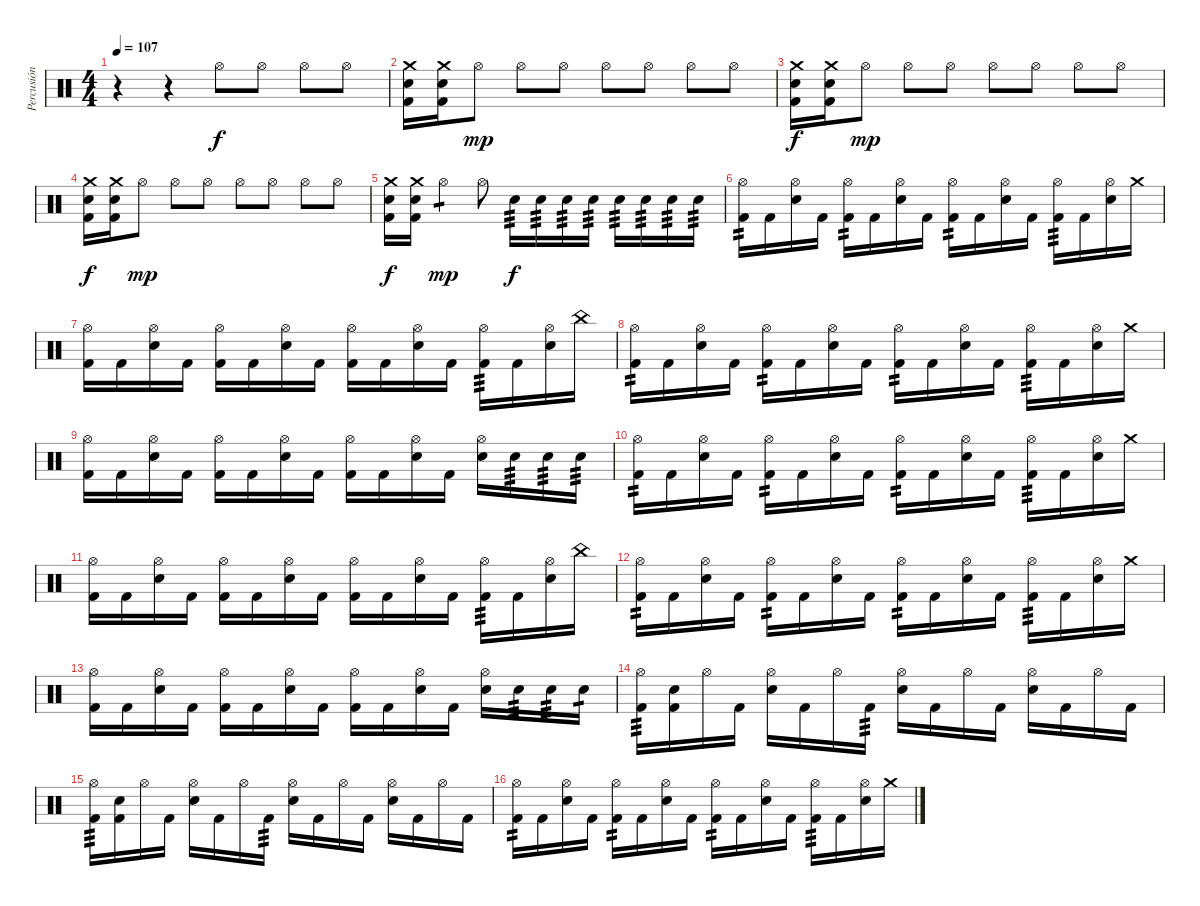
\track ("Percusión" "Percusión") {instrument percussion}
\staff {score}
\articulation defaults
\ts (4 4)
\tempo 107
\clef neutral
\ks c
r.4{dy f} r.4 "Hi-Hat (open)".8 "Hi-Hat (open)".8 "Hi-Hat (open)".8 "Hi-Hat (open)".8 |
("Crash medium (hit)" "Electric Snare (hit)" "Kick (hit) 2").16 ("Crash medium (hit)" "Electric Snare (hit)" "Kick (hit) 2").16 "Hi-Hat (open)".8{dy mp} "Hi-Hat (open)".8 "Hi-Hat (open)".8 "Hi-Hat (open)".8 "Hi-Hat (open)".8 "Hi-Hat (open)".8 "Hi-Hat (open)".8 |
("Crash medium (hit)" "Electric Snare (hit)" "Kick (hit) 2").16{dy f} ("Crash medium (hit)" "Electric Snare (hit)" "Kick (hit) 2").16 "Hi-Hat (open)".8{dy mp} "Hi-Hat (open)".8 "Hi-Hat (open)".8 "Hi-Hat (open)".8 "Hi-Hat (open)".8 "Hi-Hat (open)".8 "Hi-Hat (open)".8 |
("Crash medium (hit)" "Electric Snare (hit)" "Kick (hit) 2").16{dy f} ("Crash medium (hit)" "Electric Snare (hit)" "Kick (hit) 2").16 "Hi-Hat (open)".8{dy mp} "Hi-Hat (open)".8 "Hi-Hat (open)".8 "Hi-Hat (open)".8 "Hi-Hat (open)".8 "Hi-Hat (open)".8 "Hi-Hat (open)".8 |
("Crash medium (hit)" "Electric Snare (hit)" "Kick (hit) 2").16{dy f} ("Crash medium (hit)" "Electric Snare (hit)" "Kick (hit) 2").16 "Hi-Hat (open)".4{tp 1 dy mp} "Hi-Hat (open)".8 "Electric Snare (hit)".16{tp 3 dy f} "Electric Snare (hit)".16{tp 3} "Electric Snare (hit)".16{tp 3} "Electric Snare (hit)".16{tp 3} "Electric Snare (hit)".16{tp 3} "Electric Snare (hit)".16{tp 3} "Electric Snare (hit)".16{tp 3} "Electric Snare (hit)".16{tp 3} |
("Hi-Hat (open)" "Kick (hit) 2").16{tp 2} "Kick (hit) 2".16 ("Hi-Hat (open)" "Electric Snare (hit)").16 "Kick (hit) 2".16 ("Hi-Hat (open)" "Kick (hit) 2").16{tp 2} "Kick (hit) 2".16 ("Hi-Hat (open)" "Electric Snare (hit)").16 "Kick (hit) 2".16 ("Hi-Hat (open)" "Kick (hit) 2").16{tp 2} "Kick (hit) 2".16 ("Hi-Hat (open)" "Electric Snare (hit)").16 "Kick (hit) 2".16 ("Hi-Hat (open)" "Kick (hit) 2").16{tp 3} "Kick (hit) 2".16 ("Hi-Hat (open)" "Electric Snare (hit)").16 "Crash medium (hit)".16 |
("Hi-Hat (open)" "Kick (hit) 2").16 "Kick (hit) 2".16 ("Hi-Hat (open)" "Electric Snare (hit)").16 "Kick (hit) 2".16 ("Hi-Hat (open)" "Kick (hit) 2").16 "Kick (hit) 2".16 ("Hi-Hat (open)" "Electric Snare (hit)").16 "Kick (hit) 2".16 ("Hi-Hat (open)" "Kick (hit) 2").16 "Kick (hit) 2".16 ("Hi-Hat (open)" "Electric Snare (hit)").16 "Kick (hit) 2".16 ("Hi-Hat (open)" "Kick (hit) 2").16{tp 3} "Kick (hit) 2".16 ("Hi-Hat (open)" "Electric Snare (hit)").16 "China (hit)".16 |
("Hi-Hat (open)" "Kick (hit) 2").16{tp 2} "Kick (hit) 2".16 ("Hi-Hat (open)" "Electric Snare (hit)").16 "Kick (hit) 2".16 ("Hi-Hat (open)" "Kick (hit) 2").16{tp 2} "Kick (hit) 2".16 ("Hi-Hat (open)" "Electric Snare (hit)").16 "Kick (hit) 2".16 ("Hi-Hat (open)" "Kick (hit) 2").16{tp 2} "Kick (hit) 2".16 ("Hi-Hat (open)" "Electric Snare (hit)").16 "Kick (hit) 2".16 ("Hi-Hat (open)" "Kick (hit) 2").16{tp 3} "Kick (hit) 2".16 ("Hi-Hat (open)" "Electric Snare (hit)").16 "Crash medium (hit)".16 |
("Hi-Hat (open)" "Kick (hit) 2").16 "Kick (hit) 2".16 ("Hi-Hat (open)" "Electric Snare (hit)").16 "Kick (hit) 2".16 ("Hi-Hat (open)" "Kick (hit) 2").16 "Kick (hit) 2".16 ("Hi-Hat (open)" "Electric Snare (hit)").16 "Kick (hit) 2".16 ("Hi-Hat (open)" "Kick (hit) 2").16 "Kick (hit) 2".16 ("Hi-Hat (open)" "Electric Snare (hit)").16 "Kick (hit) 2".16 ("Hi-Hat (open)" "Electric Snare (hit)").16 "Electric Snare (hit)".16{tp 3} "Electric Snare (hit)".16{tp 3} "Electric Snare (hit)".16{tp 3} |
("Hi-Hat (open)" "Kick (hit) 2").16{tp 2} "Kick (hit) 2".16 ("Hi-Hat (open)" "Electric Snare (hit)").16 "Kick (hit) 2".16 ("Hi-Hat (open)" "Kick (hit) 2").16{tp 2} "Kick (hit) 2".16 ("Hi-Hat (open)" "Electric Snare (hit)").16 "Kick (hit) 2".16 ("Hi-Hat (open)" "Kick (hit) 2").16{tp 2} "Kick (hit) 2".16 ("Hi-Hat (open)" "Electric Snare (hit)").16 "Kick (hit) 2".16 ("Hi-Hat (open)" "Kick (hit) 2").16{tp 3} "Kick (hit) 2".16 ("Hi-Hat (open)" "Electric Snare (hit)").16 "Crash medium (hit)".16 |
("Hi-Hat (open)" "Kick (hit) 2").16 "Kick (hit) 2".16 ("Hi-Hat (open)" "Electric Snare (hit)").16 "Kick (hit) 2".16 ("Hi-Hat (open)" "Kick (hit) 2").16 "Kick (hit) 2".16 ("Hi-Hat (open)" "Electric Snare (hit)").16 "Kick (hit) 2".16 ("Hi-Hat (open)" "Kick (hit) 2").16 "Kick (hit) 2".16 ("Hi-Hat (open)" "Electric Snare (hit)").16 "Kick (hit) 2".16 ("Hi-Hat (open)" "Kick (hit) 2").16{tp 3} "Kick (hit) 2".16 ("Hi-Hat (open)" "Electric Snare (hit)").16 "China (hit)".16 |
("Hi-Hat (open)" "Kick (hit) 2").16{tp 2} "Kick (hit) 2".16 ("Hi-Hat (open)" "Electric Snare (hit)").16 "Kick (hit) 2".16 ("Hi-Hat (open)" "Kick (hit) 2").16{tp 2} "Kick (hit) 2".16 ("Hi-Hat (open)" "Electric Snare (hit)").16 "Kick (hit) 2".16 ("Hi-Hat (open)" "Kick (hit) 2").16{tp 2} "Kick (hit) 2".16 ("Hi-Hat (open)" "Electric Snare (hit)").16 "Kick (hit) 2".16 ("Hi-Hat (open)" "Kick (hit) 2").16{tp 3} "Kick (hit) 2".16 ("Hi-Hat (open)" "Electric Snare (hit)").16 "Crash medium (hit)".16 |
("Hi-Hat (open)" "Kick (hit) 2").16 "Kick (hit) 2".16 ("Hi-Hat (open)" "Electric Snare (hit)").16 "Kick (hit) 2".16 ("Hi-Hat (open)" "Kick (hit) 2").16 "Kick (hit) 2".16 ("Hi-Hat (open)" "Electric Snare (hit)").16 "Kick (hit) 2".16 ("Hi-Hat (open)" "Kick (hit) 2").16 "Kick (hit) 2".16 ("Hi-Hat (open)" "Electric Snare (hit)").16 "Kick (hit) 2".16 ("Hi-Hat (open)" "Electric Snare (hit)").16 "Electric Snare (hit)".16{tp 3} "Electric Snare (hit)".16{tp 3} "Electric Snare (hit)".16{tp 1} |
("Hi-Hat (open)" "Kick (hit) 2").16{tp 3} ("Electric Snare (hit)" "Kick (hit) 2").16 "Hi-Hat (open)".16 "Kick (hit) 2".16 ("Hi-Hat (open)" "Electric Snare (hit)").16 "Kick (hit) 2".16 "Hi-Hat (open)".16 "Kick (hit) 2".16{tp 3} ("Hi-Hat (open)" "Electric Snare (hit)").16 "Kick (hit) 2".16 "Hi-Hat (open)".16 "Kick (hit) 2".16 ("Hi-Hat (open)" "Electric Snare (hit)").16 "Kick (hit) 2".16 "Hi-Hat (open)".16 "Kick (hit) 2".16 |
("Hi-Hat (open)" "Kick (hit) 2").16{tp 3} ("Electric Snare (hit)" "Kick (hit) 2").16 "Hi-Hat (open)".16 "Kick (hit) 2".16 ("Hi-Hat (open)" "Electric Snare (hit)").16 "Kick (hit) 2".16 "Hi-Hat (open)".16 "Kick (hit) 2".16{tp 3} ("Hi-Hat (open)" "Electric Snare (hit)").16 "Kick (hit) 2".16 "Hi-Hat (open)".16 "Kick (hit) 2".16 ("Hi-Hat (open)" "Electric Snare (hit)").16 "Kick (hit) 2".16 "Hi-Hat (open)".16 "Kick (hit) 2".16 |
("Hi-Hat (open)" "Kick (hit) 2").16{tp 2} "Kick (hit) 2".16 ("Hi-Hat (open)" "Electric Snare (hit)").16 "Kick (hit) 2".16 ("Hi-Hat (open)" "Kick (hit) 2").16{tp 2} "Kick (hit) 2".16 ("Hi-Hat (open)" "Electric Snare (hit)").16 "Kick (hit) 2".16 ("Hi-Hat (open)" "Kick (hit) 2").16{tp 2} "Kick (hit) 2".16 ("Hi-Hat (open)" "Electric Snare (hit)").16 "Kick (hit) 2".16 ("Hi-Hat (open)" "Kick (hit) 2").16{tp 3} "Kick (hit) 2".16 ("Hi-Hat (open)" "Electric Snare (hit)").16 "Crash medium (hit)".16
